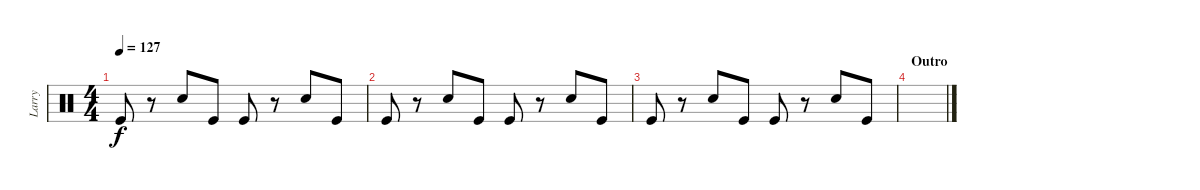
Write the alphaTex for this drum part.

\track ("Larry" "Larry") {instrument percussion}
\staff {score}
\articulation defaults
\ts (4 4)
\tempo 127
\clef neutral
\ks c "Kick (hit)".8{dy f}
r.8 "Snare (hit) 2".8 "Kick (hit)".8 "Kick (hit)".8 r.8 "Snare (hit) 2".8 "Kick (hit)".8 |
"Kick (hit)".8 r.8 "Snare (hit) 2".8 "Kick (hit)".8 "Kick (hit)".8 r.8 "Snare (hit) 2".8 "Kick (hit)".8 |
"Kick (hit)".8 r.8 "Snare (hit) 2".8 "Kick (hit)".8 "Kick (hit)".8 r.8 "Snare (hit) 2".8 "Kick (hit)".8 |
\section ("" "Outro")
